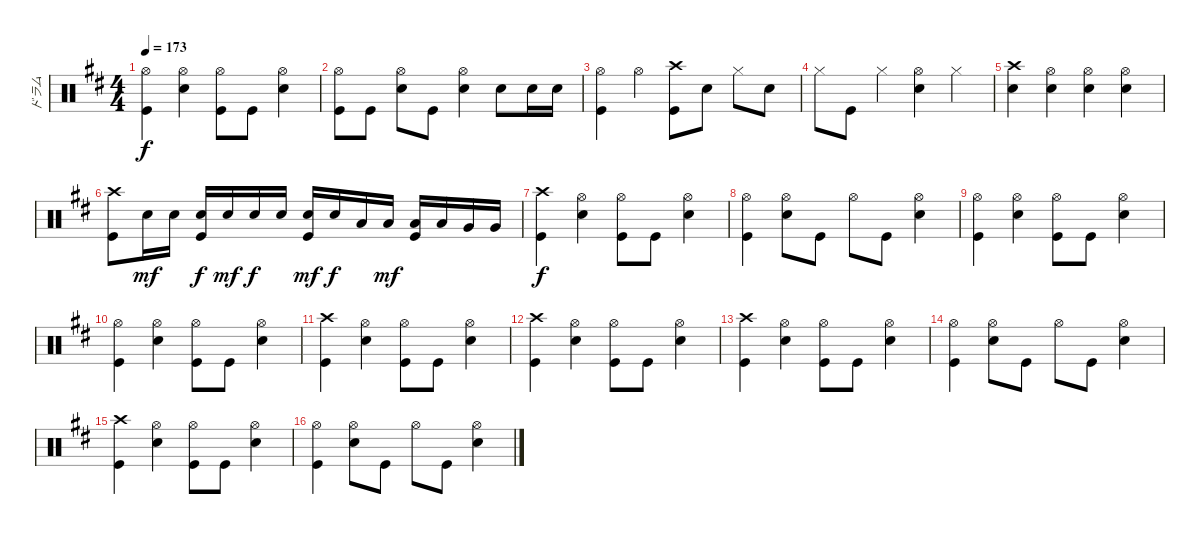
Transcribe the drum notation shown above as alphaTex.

\track ("ドラム" "ドラム") {mute instrument percussion}
\staff {score}
\articulation defaults
\ts (4 4)
\tempo 173
\clef neutral
\ks d
("Hi-Hat (open)" "Kick (hit)").4{dy f} ("Hi-Hat (open)" "Snare (hit) 2").4 ("Hi-Hat (open)" "Kick (hit)").8 "Kick (hit)".8 ("Hi-Hat (open)" "Snare (hit) 2").4 |
("Hi-Hat (open)" "Kick (hit)").8 "Kick (hit)".8 ("Hi-Hat (open)" "Snare (hit) 2").8 "Kick (hit)".8 ("Hi-Hat (open)" "Snare (hit) 2").4 "Snare (hit) 2".8 "Snare (hit) 2".16 "Snare (hit) 2".16 |
("Hi-Hat (open)" "Kick (hit)").4 "Hi-Hat (open)".4 ("Crash high (hit)" "Kick (hit)").8 "Snare (hit) 2".8 "Hi-Hat (closed)".8 "Snare (hit) 2".8 |
"Hi-Hat (closed)".8 "Kick (hit)".8 "Hi-Hat (closed)".4 ("Hi-Hat (open)" "Snare (hit) 2").4 "Hi-Hat (closed)".4 |
("Crash high (hit)" "Snare (hit) 2").4 ("Hi-Hat (open)" "Snare (hit) 2").4 ("Hi-Hat (open)" "Snare (hit) 2").4 ("Hi-Hat (open)" "Snare (hit) 2").4 |
("Crash high (hit)" "Kick (hit)").8 "Snare (hit) 2".16{dy mf} "Snare (hit) 2".16 ("Snare (hit) 2" "Kick (hit)").16{dy f} "Snare (hit) 2".16{dy mf} "Snare (hit) 2".16{dy f} "Snare (hit) 2".16 ("Snare (hit) 2" "Kick (hit)").16{dy mf} "Snare (hit) 2".16{dy f} "Low Tom (hit)".16 "Low Tom (hit)".16{dy mf} ("Low Tom (hit)" "Kick (hit)").16 "Low Tom (hit)".16 "Very Low Tom (hit)".16 "Very Low Tom (hit)".16 |
("Crash high (hit)" "Kick (hit)").4{dy f} ("Hi-Hat (open)" "Snare (hit) 2").4 ("Hi-Hat (open)" "Kick (hit)").8 "Kick (hit)".8 ("Hi-Hat (open)" "Snare (hit) 2").4 |
("Hi-Hat (open)" "Kick (hit)").4 ("Hi-Hat (open)" "Snare (hit) 2").8 "Kick (hit)".8 "Hi-Hat (open)".8 "Kick (hit)".8 ("Hi-Hat (open)" "Snare (hit) 2").4 |
("Hi-Hat (open)" "Kick (hit)").4 ("Hi-Hat (open)" "Snare (hit) 2").4 ("Hi-Hat (open)" "Kick (hit)").8 "Kick (hit)".8 ("Hi-Hat (open)" "Snare (hit) 2").4 |
("Hi-Hat (open)" "Kick (hit)").4 ("Hi-Hat (open)" "Snare (hit) 2").4 ("Hi-Hat (open)" "Kick (hit)").8 "Kick (hit)".8 ("Hi-Hat (open)" "Snare (hit) 2").4 |
("Crash high (hit)" "Kick (hit)").4 ("Hi-Hat (open)" "Snare (hit) 2").4 ("Hi-Hat (open)" "Kick (hit)").8 "Kick (hit)".8 ("Hi-Hat (open)" "Snare (hit) 2").4 |
("Crash high (hit)" "Kick (hit)").4 ("Hi-Hat (open)" "Snare (hit) 2").4 ("Hi-Hat (open)" "Kick (hit)").8 "Kick (hit)".8 ("Hi-Hat (open)" "Snare (hit) 2").4 |
("Crash high (hit)" "Kick (hit)").4 ("Hi-Hat (open)" "Snare (hit) 2").4 ("Hi-Hat (open)" "Kick (hit)").8 "Kick (hit)".8 ("Hi-Hat (open)" "Snare (hit) 2").4 |
("Hi-Hat (open)" "Kick (hit)").4 ("Hi-Hat (open)" "Snare (hit) 2").8 "Kick (hit)".8 "Hi-Hat (open)".8 "Kick (hit)".8 ("Hi-Hat (open)" "Snare (hit) 2").4 |
("Crash high (hit)" "Kick (hit)").4 ("Hi-Hat (open)" "Snare (hit) 2").4 ("Hi-Hat (open)" "Kick (hit)").8 "Kick (hit)".8 ("Hi-Hat (open)" "Snare (hit) 2").4 |
("Hi-Hat (open)" "Kick (hit)").4 ("Hi-Hat (open)" "Snare (hit) 2").8 "Kick (hit)".8 "Hi-Hat (open)".8 "Kick (hit)".8 ("Hi-Hat (open)" "Snare (hit) 2").4
